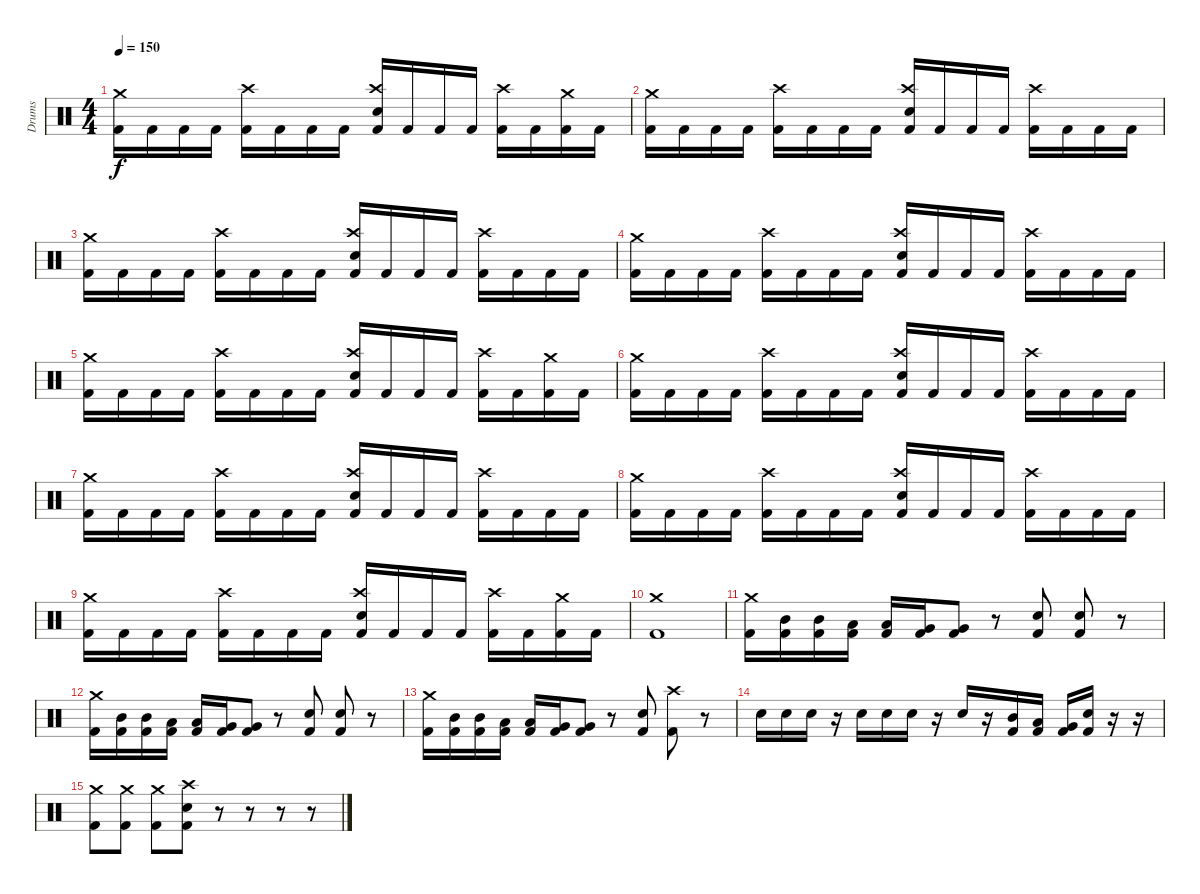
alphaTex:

\track ("Drums" "Drums") {instrument percussion}
\staff {score}
\articulation defaults
\ts (4 4)
\tempo 150
\clef neutral
\ks c
("Crash medium (hit)" "Kick (hit) 2").16{dy f} "Kick (hit) 2".16 "Kick (hit) 2".16 "Kick (hit) 2".16 ("Crash high (hit)" "Kick (hit) 2").16 "Kick (hit) 2".16 "Kick (hit) 2".16 "Kick (hit) 2".16 ("Crash high (hit)" "Electric Snare (hit)" "Kick (hit) 2").16 "Kick (hit) 2".16 "Kick (hit) 2".16 "Kick (hit) 2".16 ("Crash high (hit)" "Kick (hit) 2").16 "Kick (hit) 2".16 ("Crash medium (hit)" "Kick (hit) 2").16 "Kick (hit) 2".16 |
("Crash medium (hit)" "Kick (hit) 2").16 "Kick (hit) 2".16 "Kick (hit) 2".16 "Kick (hit) 2".16 ("Crash high (hit)" "Kick (hit) 2").16 "Kick (hit) 2".16 "Kick (hit) 2".16 "Kick (hit) 2".16 ("Crash high (hit)" "Electric Snare (hit)" "Kick (hit) 2").16 "Kick (hit) 2".16 "Kick (hit) 2".16 "Kick (hit) 2".16 ("Crash high (hit)" "Kick (hit) 2").16 "Kick (hit) 2".16 "Kick (hit) 2".16 "Kick (hit) 2".16 |
("Crash medium (hit)" "Kick (hit) 2").16 "Kick (hit) 2".16 "Kick (hit) 2".16 "Kick (hit) 2".16 ("Crash high (hit)" "Kick (hit) 2").16 "Kick (hit) 2".16 "Kick (hit) 2".16 "Kick (hit) 2".16 ("Crash high (hit)" "Electric Snare (hit)" "Kick (hit) 2").16 "Kick (hit) 2".16 "Kick (hit) 2".16 "Kick (hit) 2".16 ("Crash high (hit)" "Kick (hit) 2").16 "Kick (hit) 2".16 "Kick (hit) 2".16 "Kick (hit) 2".16 |
("Crash medium (hit)" "Kick (hit) 2").16 "Kick (hit) 2".16 "Kick (hit) 2".16 "Kick (hit) 2".16 ("Crash high (hit)" "Kick (hit) 2").16 "Kick (hit) 2".16 "Kick (hit) 2".16 "Kick (hit) 2".16 ("Crash high (hit)" "Electric Snare (hit)" "Kick (hit) 2").16 "Kick (hit) 2".16 "Kick (hit) 2".16 "Kick (hit) 2".16 ("Crash high (hit)" "Kick (hit) 2").16 "Kick (hit) 2".16 "Kick (hit) 2".16 "Kick (hit) 2".16 |
("Crash medium (hit)" "Kick (hit) 2").16 "Kick (hit) 2".16 "Kick (hit) 2".16 "Kick (hit) 2".16 ("Crash high (hit)" "Kick (hit) 2").16 "Kick (hit) 2".16 "Kick (hit) 2".16 "Kick (hit) 2".16 ("Crash high (hit)" "Electric Snare (hit)" "Kick (hit) 2").16 "Kick (hit) 2".16 "Kick (hit) 2".16 "Kick (hit) 2".16 ("Crash high (hit)" "Kick (hit) 2").16 "Kick (hit) 2".16 ("Crash medium (hit)" "Kick (hit) 2").16 "Kick (hit) 2".16 |
("Crash medium (hit)" "Kick (hit) 2").16 "Kick (hit) 2".16 "Kick (hit) 2".16 "Kick (hit) 2".16 ("Crash high (hit)" "Kick (hit) 2").16 "Kick (hit) 2".16 "Kick (hit) 2".16 "Kick (hit) 2".16 ("Crash high (hit)" "Electric Snare (hit)" "Kick (hit) 2").16 "Kick (hit) 2".16 "Kick (hit) 2".16 "Kick (hit) 2".16 ("Crash high (hit)" "Kick (hit) 2").16 "Kick (hit) 2".16 "Kick (hit) 2".16 "Kick (hit) 2".16 |
("Crash medium (hit)" "Kick (hit) 2").16 "Kick (hit) 2".16 "Kick (hit) 2".16 "Kick (hit) 2".16 ("Crash high (hit)" "Kick (hit) 2").16 "Kick (hit) 2".16 "Kick (hit) 2".16 "Kick (hit) 2".16 ("Crash high (hit)" "Electric Snare (hit)" "Kick (hit) 2").16 "Kick (hit) 2".16 "Kick (hit) 2".16 "Kick (hit) 2".16 ("Crash high (hit)" "Kick (hit) 2").16 "Kick (hit) 2".16 "Kick (hit) 2".16 "Kick (hit) 2".16 |
("Crash medium (hit)" "Kick (hit) 2").16 "Kick (hit) 2".16 "Kick (hit) 2".16 "Kick (hit) 2".16 ("Crash high (hit)" "Kick (hit) 2").16 "Kick (hit) 2".16 "Kick (hit) 2".16 "Kick (hit) 2".16 ("Crash high (hit)" "Electric Snare (hit)" "Kick (hit) 2").16 "Kick (hit) 2".16 "Kick (hit) 2".16 "Kick (hit) 2".16 ("Crash high (hit)" "Kick (hit) 2").16 "Kick (hit) 2".16 "Kick (hit) 2".16 "Kick (hit) 2".16 |
("Crash medium (hit)" "Kick (hit) 2").16 "Kick (hit) 2".16 "Kick (hit) 2".16 "Kick (hit) 2".16 ("Crash high (hit)" "Kick (hit) 2").16 "Kick (hit) 2".16 "Kick (hit) 2".16 "Kick (hit) 2".16 ("Crash high (hit)" "Electric Snare (hit)" "Kick (hit) 2").16 "Kick (hit) 2".16 "Kick (hit) 2".16 "Kick (hit) 2".16 ("Crash high (hit)" "Kick (hit) 2").16 "Kick (hit) 2".16 ("Crash medium (hit)" "Kick (hit) 2").16 "Kick (hit) 2".16 |
("Crash medium (hit)" "Kick (hit) 2").1 |
("Crash medium (hit)" "Kick (hit) 2").16 ("Mid Tom (hit)" "Kick (hit) 2").16 ("Mid Tom (hit)" "Kick (hit) 2").16 ("Low Tom (hit)" "Kick (hit) 2").16 ("Low Tom (hit)" "Kick (hit) 2").16 ("Very Low Tom (hit)" "Kick (hit) 2").16 ("Very Low Tom (hit)" "Kick (hit) 2").8 r.8 ("Electric Snare (hit)" "Kick (hit) 2").8 ("Electric Snare (hit)" "Kick (hit) 2").8 r.8 |
("Crash medium (hit)" "Kick (hit) 2").16 ("Mid Tom (hit)" "Kick (hit) 2").16 ("Mid Tom (hit)" "Kick (hit) 2").16 ("Low Tom (hit)" "Kick (hit) 2").16 ("Low Tom (hit)" "Kick (hit) 2").16 ("Very Low Tom (hit)" "Kick (hit) 2").16 ("Very Low Tom (hit)" "Kick (hit) 2").8 r.8 ("Electric Snare (hit)" "Kick (hit) 2").8 ("Electric Snare (hit)" "Kick (hit) 2").8 r.8 |
("Crash medium (hit)" "Kick (hit) 2").16 ("Mid Tom (hit)" "Kick (hit) 2").16 ("Mid Tom (hit)" "Kick (hit) 2").16 ("Low Tom (hit)" "Kick (hit) 2").16 ("Low Tom (hit)" "Kick (hit) 2").16 ("Very Low Tom (hit)" "Kick (hit) 2").16 ("Very Low Tom (hit)" "Kick (hit) 2").8 r.8 ("Electric Snare (hit)" "Kick (hit) 2").8 ("Crash high (hit)" "Kick (hit) 2").8 r.8 |
"Electric Snare (hit)".16 "Electric Snare (hit)".16 "Electric Snare (hit)".16 r.16 "Electric Snare (hit)".16 "Electric Snare (hit)".16 "Electric Snare (hit)".16 r.16 "Electric Snare (hit)".16 r.16 ("Mid Tom (hit)" "Kick (hit) 2").16 ("Low Tom (hit)" "Kick (hit) 2").16 ("Very Low Tom (hit)" "Kick (hit) 2").16 ("Electric Snare (hit)" "Kick (hit) 2").16 r.16 r.16 |
("Crash medium (hit)" "Kick (hit) 2").8 ("Crash medium (hit)" "Kick (hit) 2").8 ("Crash medium (hit)" "Kick (hit) 2").8 ("Crash high (hit)" "Electric Snare (hit)" "Kick (hit) 2").8 r.8 r.8 r.8 r.8
